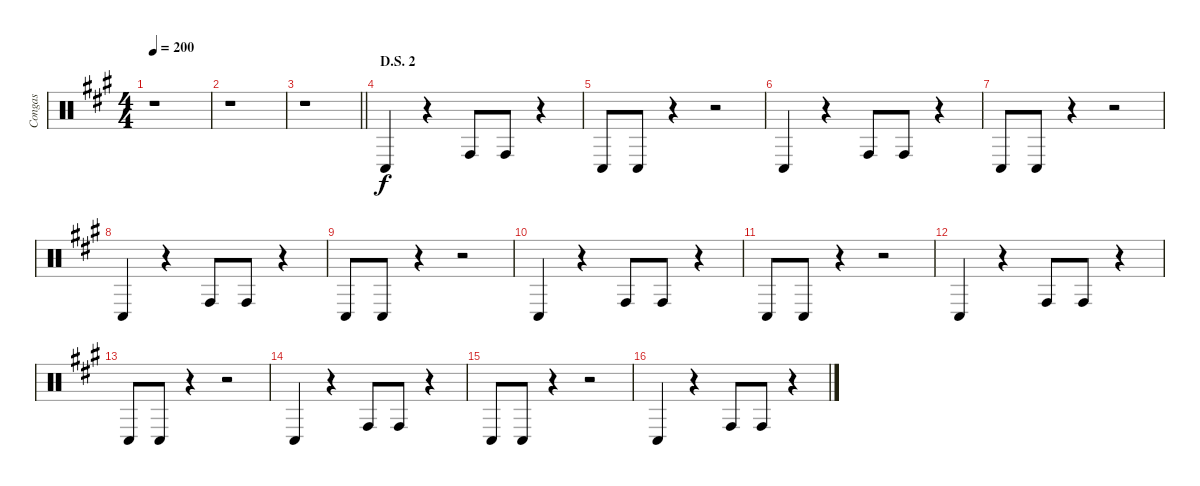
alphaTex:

\track ("Congas" "Congas") {instrument percussion}
\staff {score}
\articulation defaults
\ts (4 4)
\tempo 200
\clef neutral
\ks a
r.1{dy f} |
r.1 |
\barLineRight lightlight
r.1 |
\section ("" "D.S. 2")
"Conga low (hit)".4 r.4 "Conga high (hit)".8 "Conga high (hit)".8 r.4 |
"Conga low (hit)".8 "Conga low (hit)".8 r.4 r.2 |
"Conga low (hit)".4 r.4 "Conga high (hit)".8 "Conga high (hit)".8 r.4 |
"Conga low (hit)".8 "Conga low (hit)".8 r.4 r.2 |
"Conga low (hit)".4 r.4 "Conga high (hit)".8 "Conga high (hit)".8 r.4 |
"Conga low (hit)".8 "Conga low (hit)".8 r.4 r.2 |
"Conga low (hit)".4 r.4 "Conga high (hit)".8 "Conga high (hit)".8 r.4 |
"Conga low (hit)".8 "Conga low (hit)".8 r.4 r.2 |
"Conga low (hit)".4 r.4 "Conga high (hit)".8 "Conga high (hit)".8 r.4 |
"Conga low (hit)".8 "Conga low (hit)".8 r.4 r.2 |
"Conga low (hit)".4 r.4 "Conga high (hit)".8 "Conga high (hit)".8 r.4 |
"Conga low (hit)".8 "Conga low (hit)".8 r.4 r.2 |
"Conga low (hit)".4 r.4 "Conga high (hit)".8 "Conga high (hit)".8 r.4
